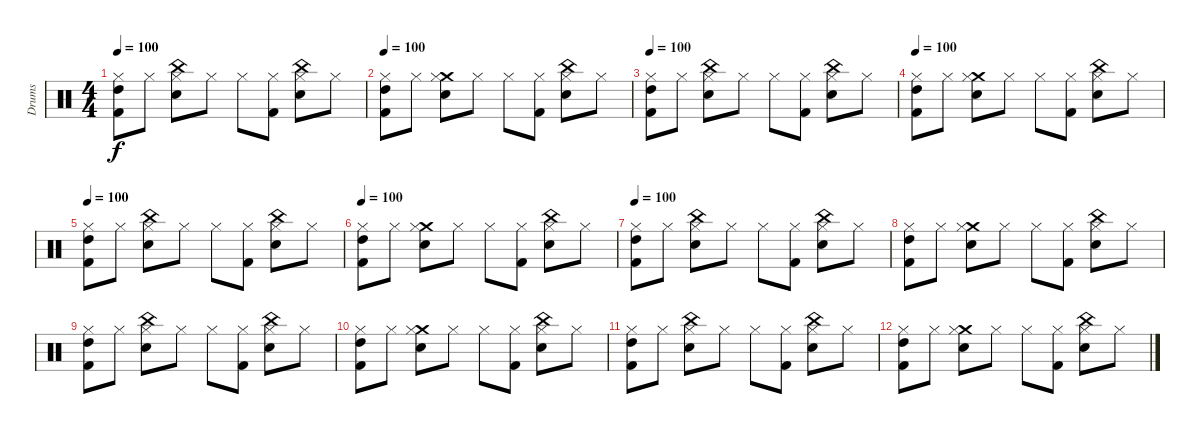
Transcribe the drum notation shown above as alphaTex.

\track ("Drums" "Drums") {instrument percussion}
\staff {score}
\articulation defaults
\ts (4 4)
\tempo 100
\clef neutral
\ks c
("Kick (hit) 2" "High Tom (hit)" "Hi-Hat (closed)").8{dy f} "Hi-Hat (closed)".8 ("Hi-Hat (closed)" "Electric Snare (hit)" "China (hit)").8 "Hi-Hat (closed)".8 "Hi-Hat (closed)".8 ("Kick (hit) 2" "Hi-Hat (closed)").8 ("Hi-Hat (closed)" "Snare (hit) 2" "China (hit)").8 "Hi-Hat (closed)".8 |
\tempo 100
("Kick (hit) 2" "High Tom (hit)" "Hi-Hat (closed)").8 "Hi-Hat (closed)".8 ("Crash medium (hit)" "Hi-Hat (closed)" "Electric Snare (hit)").8 "Hi-Hat (closed)".8 "Hi-Hat (closed)".8 ("Kick (hit) 2" "Hi-Hat (closed)").8 ("China (hit)" "Hi-Hat (closed)" "Snare (hit) 2").8 "Hi-Hat (closed)".8 |
\tempo 100
("Kick (hit) 2" "High Tom (hit)" "Hi-Hat (closed)").8 "Hi-Hat (closed)".8 ("Hi-Hat (closed)" "Electric Snare (hit)" "China (hit)").8 "Hi-Hat (closed)".8 "Hi-Hat (closed)".8 ("Kick (hit) 2" "Hi-Hat (closed)").8 ("Hi-Hat (closed)" "Snare (hit) 2" "China (hit)").8 "Hi-Hat (closed)".8 |
\tempo 100
("Kick (hit) 2" "High Tom (hit)" "Hi-Hat (closed)").8 "Hi-Hat (closed)".8 ("Crash medium (hit)" "Hi-Hat (closed)" "Electric Snare (hit)").8 "Hi-Hat (closed)".8 "Hi-Hat (closed)".8 ("Kick (hit) 2" "Hi-Hat (closed)").8 ("China (hit)" "Hi-Hat (closed)" "Snare (hit) 2").8 "Hi-Hat (closed)".8 |
\tempo 100
("Kick (hit) 2" "High Tom (hit)" "Hi-Hat (closed)").8 "Hi-Hat (closed)".8 ("Hi-Hat (closed)" "Electric Snare (hit)" "China (hit)").8 "Hi-Hat (closed)".8 "Hi-Hat (closed)".8 ("Kick (hit) 2" "Hi-Hat (closed)").8 ("Hi-Hat (closed)" "Snare (hit) 2" "China (hit)").8 "Hi-Hat (closed)".8 |
\tempo 100
("Kick (hit) 2" "High Tom (hit)" "Hi-Hat (closed)").8 "Hi-Hat (closed)".8 ("Crash medium (hit)" "Hi-Hat (closed)" "Electric Snare (hit)").8 "Hi-Hat (closed)".8 "Hi-Hat (closed)".8 ("Kick (hit) 2" "Hi-Hat (closed)").8 ("China (hit)" "Hi-Hat (closed)" "Snare (hit) 2").8 "Hi-Hat (closed)".8 |
\tempo 100
("Kick (hit) 2" "High Tom (hit)" "Hi-Hat (closed)").8 "Hi-Hat (closed)".8 ("Hi-Hat (closed)" "Electric Snare (hit)" "China (hit)").8 "Hi-Hat (closed)".8 "Hi-Hat (closed)".8 ("Kick (hit) 2" "Hi-Hat (closed)").8 ("Hi-Hat (closed)" "Snare (hit) 2" "China (hit)").8 "Hi-Hat (closed)".8 |
("Kick (hit) 2" "High Tom (hit)" "Hi-Hat (closed)").8 "Hi-Hat (closed)".8 ("Crash medium (hit)" "Hi-Hat (closed)" "Electric Snare (hit)").8 "Hi-Hat (closed)".8 "Hi-Hat (closed)".8 ("Kick (hit) 2" "Hi-Hat (closed)").8 ("China (hit)" "Hi-Hat (closed)" "Snare (hit) 2").8 "Hi-Hat (closed)".8 |
("Kick (hit) 2" "High Tom (hit)" "Hi-Hat (closed)").8 "Hi-Hat (closed)".8 ("Hi-Hat (closed)" "Electric Snare (hit)" "China (hit)").8 "Hi-Hat (closed)".8 "Hi-Hat (closed)".8 ("Kick (hit) 2" "Hi-Hat (closed)").8 ("Hi-Hat (closed)" "Snare (hit) 2" "China (hit)").8 "Hi-Hat (closed)".8 |
("Kick (hit) 2" "High Tom (hit)" "Hi-Hat (closed)").8 "Hi-Hat (closed)".8 ("Crash medium (hit)" "Hi-Hat (closed)" "Electric Snare (hit)").8 "Hi-Hat (closed)".8 "Hi-Hat (closed)".8 ("Kick (hit) 2" "Hi-Hat (closed)").8 ("China (hit)" "Hi-Hat (closed)" "Snare (hit) 2").8 "Hi-Hat (closed)".8 |
("Kick (hit) 2" "High Tom (hit)" "Hi-Hat (closed)").8 "Hi-Hat (closed)".8 ("Hi-Hat (closed)" "Electric Snare (hit)" "China (hit)").8 "Hi-Hat (closed)".8 "Hi-Hat (closed)".8 ("Kick (hit) 2" "Hi-Hat (closed)").8 ("Hi-Hat (closed)" "Snare (hit) 2" "China (hit)").8 "Hi-Hat (closed)".8 |
("Kick (hit) 2" "High Tom (hit)" "Hi-Hat (closed)").8 "Hi-Hat (closed)".8 ("Crash medium (hit)" "Hi-Hat (closed)" "Electric Snare (hit)").8 "Hi-Hat (closed)".8 "Hi-Hat (closed)".8 ("Kick (hit) 2" "Hi-Hat (closed)").8 ("China (hit)" "Hi-Hat (closed)" "Snare (hit) 2").8 "Hi-Hat (closed)".8
